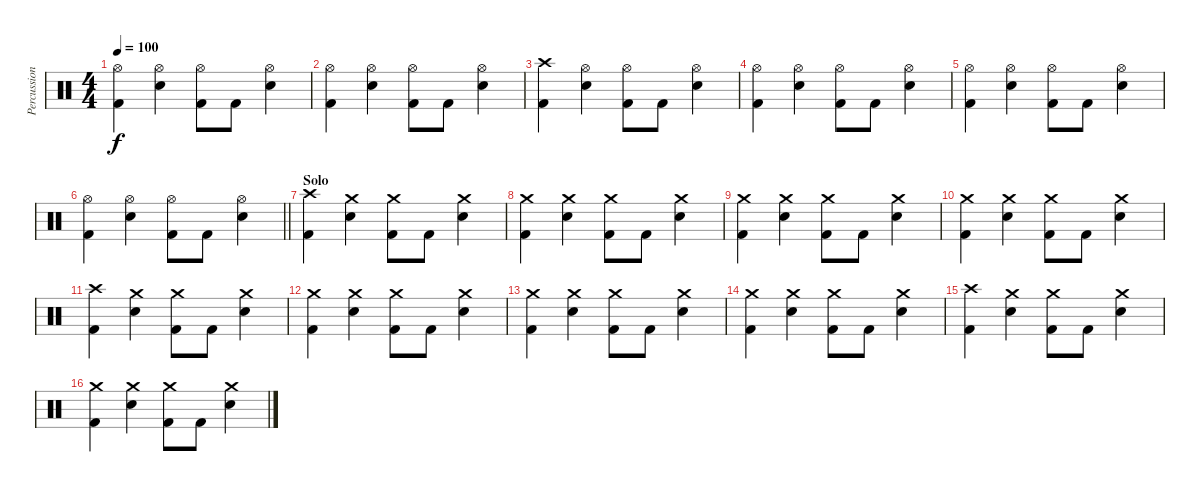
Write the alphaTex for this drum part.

\track ("Percussion" "Percussion") {instrument percussion}
\staff {score}
\articulation defaults
\ts (4 4)
\tempo 100
\clef neutral
\ks c
("Kick (hit) 2" "Hi-Hat (open)").4{dy f} ("Electric Snare (hit)" "Hi-Hat (open)").4 ("Kick (hit) 2" "Hi-Hat (open)").8 "Kick (hit) 2".8 ("Electric Snare (hit)" "Hi-Hat (open)").4 |
("Kick (hit) 2" "Hi-Hat (open)").4 ("Electric Snare (hit)" "Hi-Hat (open)").4 ("Kick (hit) 2" "Hi-Hat (open)").8 "Kick (hit) 2".8 ("Electric Snare (hit)" "Hi-Hat (open)").4 |
("Kick (hit) 2" "Crash high (hit)").4 ("Electric Snare (hit)" "Hi-Hat (open)").4 ("Kick (hit) 2" "Hi-Hat (open)").8 "Kick (hit) 2".8 ("Electric Snare (hit)" "Hi-Hat (open)").4 |
("Kick (hit) 2" "Hi-Hat (open)").4 ("Electric Snare (hit)" "Hi-Hat (open)").4 ("Kick (hit) 2" "Hi-Hat (open)").8 "Kick (hit) 2".8 ("Electric Snare (hit)" "Hi-Hat (open)").4 |
("Kick (hit) 2" "Hi-Hat (open)").4 ("Electric Snare (hit)" "Hi-Hat (open)").4 ("Kick (hit) 2" "Hi-Hat (open)").8 "Kick (hit) 2".8 ("Electric Snare (hit)" "Hi-Hat (open)").4 |
\barLineRight lightlight
("Kick (hit) 2" "Hi-Hat (open)").4 ("Electric Snare (hit)" "Hi-Hat (open)").4 ("Kick (hit) 2" "Hi-Hat (open)").8 "Kick (hit) 2".8 ("Electric Snare (hit)" "Hi-Hat (open)").4 |
\section ("" "Solo")
("Kick (hit) 2" "Crash high (hit)").4 ("Electric Snare (hit)" "Crash medium (hit)").4 ("Kick (hit) 2" "Crash medium (hit)").8 "Kick (hit) 2".8 ("Electric Snare (hit)" "Crash medium (hit)").4 |
("Kick (hit) 2" "Crash medium (hit)").4 ("Electric Snare (hit)" "Crash medium (hit)").4 ("Kick (hit) 2" "Crash medium (hit)").8 "Kick (hit) 2".8 ("Electric Snare (hit)" "Crash medium (hit)").4 |
("Kick (hit) 2" "Crash medium (hit)").4 ("Electric Snare (hit)" "Crash medium (hit)").4 ("Kick (hit) 2" "Crash medium (hit)").8 "Kick (hit) 2".8 ("Electric Snare (hit)" "Crash medium (hit)").4 |
("Kick (hit) 2" "Crash medium (hit)").4 ("Electric Snare (hit)" "Crash medium (hit)").4 ("Kick (hit) 2" "Crash medium (hit)").8 "Kick (hit) 2".8 ("Electric Snare (hit)" "Crash medium (hit)").4 |
("Kick (hit) 2" "Crash high (hit)").4 ("Electric Snare (hit)" "Crash medium (hit)").4 ("Kick (hit) 2" "Crash medium (hit)").8 "Kick (hit) 2".8 ("Electric Snare (hit)" "Crash medium (hit)").4 |
("Kick (hit) 2" "Crash medium (hit)").4 ("Electric Snare (hit)" "Crash medium (hit)").4 ("Kick (hit) 2" "Crash medium (hit)").8 "Kick (hit) 2".8 ("Electric Snare (hit)" "Crash medium (hit)").4 |
("Kick (hit) 2" "Crash medium (hit)").4 ("Electric Snare (hit)" "Crash medium (hit)").4 ("Kick (hit) 2" "Crash medium (hit)").8 "Kick (hit) 2".8 ("Electric Snare (hit)" "Crash medium (hit)").4 |
("Kick (hit) 2" "Crash medium (hit)").4 ("Electric Snare (hit)" "Crash medium (hit)").4 ("Kick (hit) 2" "Crash medium (hit)").8 "Kick (hit) 2".8 ("Electric Snare (hit)" "Crash medium (hit)").4 |
("Kick (hit) 2" "Crash high (hit)").4 ("Electric Snare (hit)" "Crash medium (hit)").4 ("Kick (hit) 2" "Crash medium (hit)").8 "Kick (hit) 2".8 ("Electric Snare (hit)" "Crash medium (hit)").4 |
("Kick (hit) 2" "Crash medium (hit)").4 ("Electric Snare (hit)" "Crash medium (hit)").4 ("Kick (hit) 2" "Crash medium (hit)").8 "Kick (hit) 2".8 ("Electric Snare (hit)" "Crash medium (hit)").4
